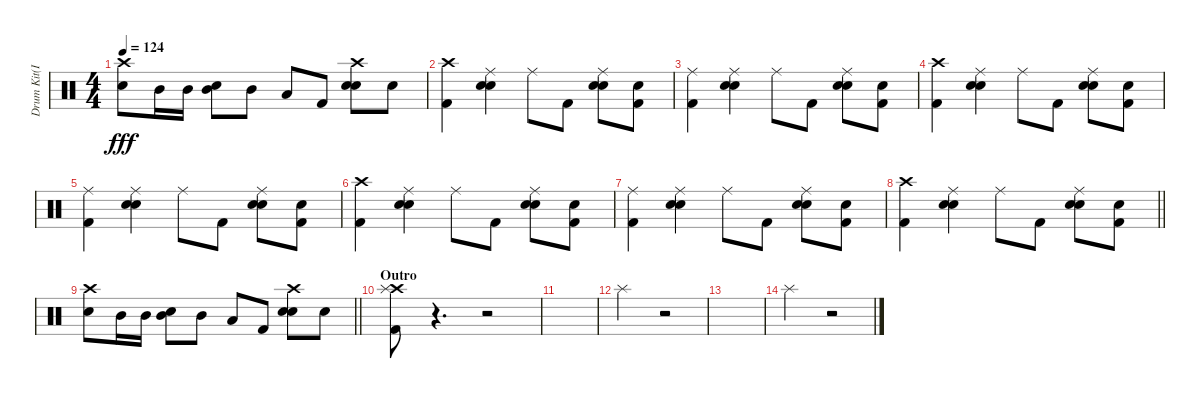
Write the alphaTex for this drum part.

\track ("Drum Kit(Inu)" "Drum Kit(I") {instrument percussion}
\staff {score}
\articulation defaults
\ts (4 4)
\tempo 124
\clef neutral
\ks c
("Crash high (hit)" "Electric Snare (hit)").8{dy fff} "Mid Tom (hit)".16 "Mid Tom (hit)".16 ("Mid Tom (hit)" "Hand Clap (hit)").8 "Mid Tom (hit)".8 "Low Tom (hit)".8 "Kick (hit) 2".8 ("Crash high (hit)" "Electric Snare (hit)" "Hand Clap (hit)").8 "Hand Clap (hit)".8 |
("Crash high (hit)" "Kick (hit) 2").4 ("Electric Snare (hit)" "Ride (middle)" "Hand Clap (hit)").4 "Ride (middle)".8 "Kick (hit) 2".8 ("Electric Snare (hit)" "Ride (middle)" "Hand Clap (hit)").8 ("Kick (hit) 2" "Hand Clap (hit)").8 |
("Ride (middle)" "Kick (hit) 2").4 ("Electric Snare (hit)" "Ride (middle)" "Hand Clap (hit)").4 "Ride (middle)".8 "Kick (hit) 2".8 ("Electric Snare (hit)" "Ride (middle)" "Hand Clap (hit)").8 ("Kick (hit) 2" "Hand Clap (hit)").8 |
("Crash high (hit)" "Kick (hit) 2").4 ("Electric Snare (hit)" "Ride (middle)" "Hand Clap (hit)").4 "Ride (middle)".8 "Kick (hit) 2".8 ("Electric Snare (hit)" "Ride (middle)" "Hand Clap (hit)").8 ("Kick (hit) 2" "Hand Clap (hit)").8 |
("Ride (middle)" "Kick (hit) 2").4 ("Electric Snare (hit)" "Ride (middle)" "Hand Clap (hit)").4 "Ride (middle)".8 "Kick (hit) 2".8 ("Electric Snare (hit)" "Ride (middle)" "Hand Clap (hit)").8 ("Kick (hit) 2" "Hand Clap (hit)").8 |
("Crash high (hit)" "Kick (hit) 2").4 ("Electric Snare (hit)" "Ride (middle)" "Hand Clap (hit)").4 "Ride (middle)".8 "Kick (hit) 2".8 ("Electric Snare (hit)" "Ride (middle)" "Hand Clap (hit)").8 ("Kick (hit) 2" "Hand Clap (hit)").8 |
("Ride (middle)" "Kick (hit) 2").4 ("Electric Snare (hit)" "Ride (middle)" "Hand Clap (hit)").4 "Ride (middle)".8 "Kick (hit) 2".8 ("Electric Snare (hit)" "Ride (middle)" "Hand Clap (hit)").8 ("Kick (hit) 2" "Hand Clap (hit)").8 |
\barLineRight lightlight
("Crash high (hit)" "Kick (hit) 2").4 ("Electric Snare (hit)" "Ride (middle)" "Hand Clap (hit)").4 "Ride (middle)".8 "Kick (hit) 2".8 ("Electric Snare (hit)" "Ride (middle)" "Hand Clap (hit)").8 ("Kick (hit) 2" "Hand Clap (hit)").8 |
\barLineRight lightlight
("Crash high (hit)" "Electric Snare (hit)").8 "Mid Tom (hit)".16 "Mid Tom (hit)".16 ("Mid Tom (hit)" "Hand Clap (hit)").8 "Mid Tom (hit)".8 "Low Tom (hit)".8 "Kick (hit) 2".8 ("Crash high (hit)" "Electric Snare (hit)" "Hand Clap (hit)").8 "Hand Clap (hit)".8 |
\section ("" "Outro")
("Crash high (hit)" "Kick (hit) 2" "Splash (hit)").8 r.4{d} r.2 |
|
"Splash (hit)".2 r.2 |
|
"Splash (hit)".2 r.2
